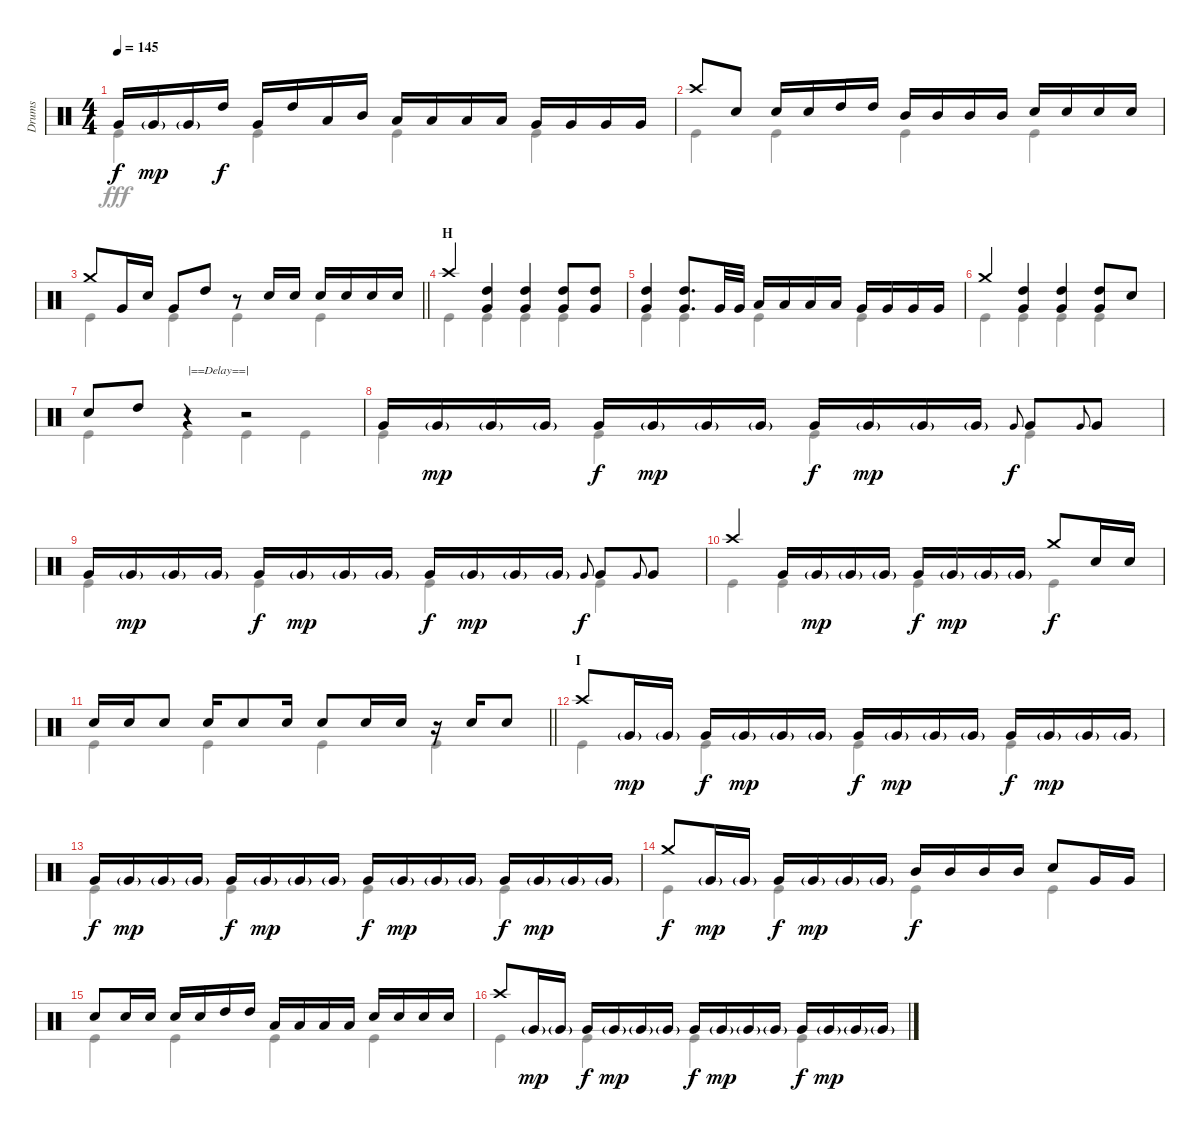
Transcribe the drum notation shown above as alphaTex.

\track ("Drums" "Drums") {instrument percussion}
\staff {score}
\articulation defaults
\voice
\ts (4 4)
\tempo 145
\clef neutral
\ks c "Very Low Tom (hit)".16{dy f} "Very Low Tom (hit)"{g}.16{dy mp} "Very Low Tom (hit)"{g}.16 "High Tom (hit)".16{dy f} "Very Low Tom (hit)".16 "High Tom (hit)".16 "Low Tom (hit)".16 "Mid Tom (hit)".16 "Low Tom (hit)".16 "Low Tom (hit)".16 "Low Tom (hit)".16 "Low Tom (hit)".16 "Very Low Tom (hit)".16 "Very Low Tom (hit)".16 "Very Low Tom (hit)".16 "Very Low Tom (hit)".16
|
"Crash high (hit)".8 "Snare (hit) 2".8 "Snare (hit) 2".16 "Snare (hit) 2".16 "High Tom (hit)".16 "High Tom (hit)".16 "Mid Tom (hit)".16 "Mid Tom (hit)".16 "Mid Tom (hit)".16 "Mid Tom (hit)".16 "Snare (hit) 2".16 "Snare (hit) 2".16 "Snare (hit) 2".16 "Snare (hit) 2".16 |
\barLineRight lightlight "Crash medium (hit)".8 "Very Low Tom (hit)".16 "Snare (hit) 2".16 "Very Low Tom (hit)".8 "High Tom (hit)".8
r.8 "Snare (hit) 2".16 "Snare (hit) 2".16 "Snare (hit) 2".16 "Snare (hit) 2".16 "Snare (hit) 2".16 "Snare (hit) 2".16 |
\section ("" "H")
"Crash high (hit)".4 ("High Tom (hit)" "Very Low Tom (hit)").4 ("High Tom (hit)" "Very Low Tom (hit)").4 ("High Tom (hit)" "Very Low Tom (hit)").8 ("High Tom (hit)" "Very Low Tom (hit)").8 |
("High Tom (hit)" "Very Low Tom (hit)").4 ("High Tom (hit)" "Very Low Tom (hit)").8{d} "Very Low Tom (hit)".32 "Very Low Tom (hit)".32 "Low Tom (hit)".16 "Low Tom (hit)".16 "Low Tom (hit)".16 "Low Tom (hit)".16 "Very Low Tom (hit)".16 "Very Low Tom (hit)".16 "Very Low Tom (hit)".16 "Very Low Tom (hit)".16 |
"Crash medium (hit)".4 ("High Tom (hit)" "Very Low Tom (hit)").4 ("High Tom (hit)" "Very Low Tom (hit)").4 ("High Tom (hit)" "Very Low Tom (hit)").8 "Snare (hit) 2".8 |
"Snare (hit) 2".8 "High Tom (hit)".8 r.4{txt "|==Delay==|"} r.2 |
"Very Low Tom (hit)".16 "Very Low Tom (hit)"{g}.16{dy mp} "Very Low Tom (hit)"{g}.16 "Very Low Tom (hit)"{g}.16 "Very Low Tom (hit)".16{dy f} "Very Low Tom (hit)"{g}.16{dy mp} "Very Low Tom (hit)"{g}.16 "Very Low Tom (hit)"{g}.16 "Very Low Tom (hit)".16{dy f} "Very Low Tom (hit)"{g}.16{dy mp} "Very Low Tom (hit)"{g}.16 "Very Low Tom (hit)"{g}.16 "Very Low Tom (hit)".8{gr onbeat dy f} "Very Low Tom (hit)".8 "Very Low Tom (hit)".8{gr onbeat} "Very Low Tom (hit)".8 |
"Very Low Tom (hit)".16 "Very Low Tom (hit)"{g}.16{dy mp} "Very Low Tom (hit)"{g}.16 "Very Low Tom (hit)"{g}.16 "Very Low Tom (hit)".16{dy f} "Very Low Tom (hit)"{g}.16{dy mp} "Very Low Tom (hit)"{g}.16 "Very Low Tom (hit)"{g}.16 "Very Low Tom (hit)".16{dy f} "Very Low Tom (hit)"{g}.16{dy mp} "Very Low Tom (hit)"{g}.16 "Very Low Tom (hit)"{g}.16 "Very Low Tom (hit)".8{gr onbeat dy f} "Very Low Tom (hit)".8 "Very Low Tom (hit)".8{gr onbeat} "Very Low Tom (hit)".8 |
"Crash high (hit)".4 "Very Low Tom (hit)".16 "Very Low Tom (hit)"{g}.16{dy mp} "Very Low Tom (hit)"{g}.16 "Very Low Tom (hit)"{g}.16 "Very Low Tom (hit)".16{dy f} "Very Low Tom (hit)"{g}.16{dy mp} "Very Low Tom (hit)"{g}.16 "Very Low Tom (hit)"{g}.16 "Crash medium (hit)".8{dy f} "Snare (hit) 2".16 "Snare (hit) 2".16 |
\barLineRight lightlight "Snare (hit) 2".16 "Snare (hit) 2".16 "Snare (hit) 2".8 "Snare (hit) 2".16 "Snare (hit) 2".8 "Snare (hit) 2".16 "Snare (hit) 2".8 "Snare (hit) 2".16 "Snare (hit) 2".16
r.16 "Snare (hit) 2".16 "Snare (hit) 2".8 |
\section ("" "I")
"Crash high (hit)".8 "Very Low Tom (hit)"{g}.16{dy mp} "Very Low Tom (hit)"{g}.16 "Very Low Tom (hit)".16{dy f} "Very Low Tom (hit)"{g}.16{dy mp} "Very Low Tom (hit)"{g}.16 "Very Low Tom (hit)"{g}.16 "Very Low Tom (hit)".16{dy f} "Very Low Tom (hit)"{g}.16{dy mp} "Very Low Tom (hit)"{g}.16 "Very Low Tom (hit)"{g}.16 "Very Low Tom (hit)".16{dy f} "Very Low Tom (hit)"{g}.16{dy mp} "Very Low Tom (hit)"{g}.16 "Very Low Tom (hit)"{g}.16 |
"Very Low Tom (hit)".16{dy f} "Very Low Tom (hit)"{g}.16{dy mp} "Very Low Tom (hit)"{g}.16 "Very Low Tom (hit)"{g}.16 "Very Low Tom (hit)".16{dy f} "Very Low Tom (hit)"{g}.16{dy mp} "Very Low Tom (hit)"{g}.16 "Very Low Tom (hit)"{g}.16 "Very Low Tom (hit)".16{dy f} "Very Low Tom (hit)"{g}.16{dy mp} "Very Low Tom (hit)"{g}.16 "Very Low Tom (hit)"{g}.16 "Very Low Tom (hit)".16{dy f} "Very Low Tom (hit)"{g}.16{dy mp} "Very Low Tom (hit)"{g}.16 "Very Low Tom (hit)"{g}.16 |
"Crash medium (hit)".8{dy f} "Very Low Tom (hit)"{g}.16{dy mp} "Very Low Tom (hit)"{g}.16 "Very Low Tom (hit)".16{dy f} "Very Low Tom (hit)"{g}.16{dy mp} "Very Low Tom (hit)"{g}.16 "Very Low Tom (hit)"{g}.16 "Mid Tom (hit)".16{dy f} "Mid Tom (hit)".16 "Mid Tom (hit)".16 "Mid Tom (hit)".16 "Snare (hit) 2".8 "Very Low Tom (hit)".16 "Very Low Tom (hit)".16 |
"Snare (hit) 2".8 "Snare (hit) 2".16 "Snare (hit) 2".16 "Snare (hit) 2".16 "Snare (hit) 2".16 "High Tom (hit)".16 "High Tom (hit)".16 "Low Tom (hit)".16 "Low Tom (hit)".16 "Low Tom (hit)".16 "Low Tom (hit)".16 "Snare (hit) 2".16 "Snare (hit) 2".16 "Snare (hit) 2".16 "Snare (hit) 2".16 |
"Crash high (hit)".8 "Very Low Tom (hit)"{g}.16{dy mp} "Very Low Tom (hit)"{g}.16 "Very Low Tom (hit)".16{dy f} "Very Low Tom (hit)"{g}.16{dy mp} "Very Low Tom (hit)"{g}.16 "Very Low Tom (hit)"{g}.16 "Very Low Tom (hit)".16{dy f} "Very Low Tom (hit)"{g}.16{dy mp} "Very Low Tom (hit)"{g}.16 "Very Low Tom (hit)"{g}.16 "Very Low Tom (hit)".16{dy f} "Very Low Tom (hit)"{g}.16{dy mp} "Very Low Tom (hit)"{g}.16 "Very Low Tom (hit)"{g}.16
\voice
\clef neutral
\ottava regular
\simile none
\ks c "Kick (hit)".4{dy fff} "Kick (hit)".4 "Kick (hit)".4 "Kick (hit)".4
|
"Kick (hit)".4 "Kick (hit)".4 "Kick (hit)".4 "Kick (hit)".4 |
\barLineRight lightlight "Kick (hit)".4 "Kick (hit)".4 "Kick (hit)".4 "Kick (hit)".4
|
"Kick (hit)".4 "Kick (hit)".4 "Kick (hit)".4 "Kick (hit)".4 |
"Kick (hit)".4 "Kick (hit)".4 "Kick (hit)".4 "Kick (hit)".4 |
"Kick (hit)".4 "Kick (hit)".4 "Kick (hit)".4 "Kick (hit)".4 |
"Kick (hit)".4 "Kick (hit)".4 "Kick (hit)".4 "Kick (hit)".4 |
"Kick (hit)".4 "Kick (hit)".4 "Kick (hit)".4 "Kick (hit)".4 |
"Kick (hit)".4 "Kick (hit)".4 "Kick (hit)".4 "Kick (hit)".4 |
"Kick (hit)".4 "Kick (hit)".4 "Kick (hit)".4 "Kick (hit)".4 |
\barLineRight lightlight "Kick (hit)".4 "Kick (hit)".4 "Kick (hit)".4 "Kick (hit)".4
|
"Kick (hit)".4 "Kick (hit)".4 "Kick (hit)".4 "Kick (hit)".4 |
"Kick (hit)".4 "Kick (hit)".4 "Kick (hit)".4 "Kick (hit)".4 |
"Kick (hit)".4 "Kick (hit)".4 "Kick (hit)".4 "Kick (hit)".4 |
"Kick (hit)".4 "Kick (hit)".4 "Kick (hit)".4 "Kick (hit)".4 |
"Kick (hit)".4 "Kick (hit)".4 "Kick (hit)".4 "Kick (hit)".4
